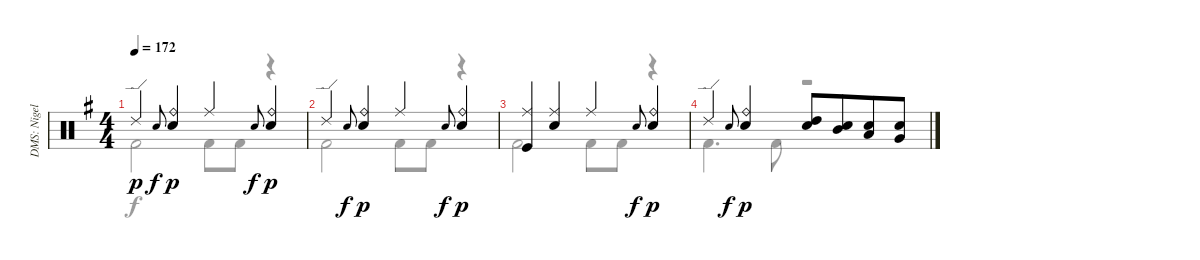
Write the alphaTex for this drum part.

\track ("DMS: Nigel Olsson" "DMS: Nigel") {instrument percussion}
\staff {score}
\articulation defaults
\voice
\ts (4 4)
\tempo 172
\clef neutral
\ks g "Ride (edge) 2".4{dy p volume 0} "Snare (hit) 2".8{gr onbeat dy f}
("Ride (bell)" "Electric Snare (hit)").4{dy p} "Ride (middle)".4 "Snare (hit) 2".8{gr onbeat dy f} ("Ride (bell)" "Electric Snare (hit)").4{dy p} |
"Ride (edge) 2".4 "Snare (hit) 2".8{gr onbeat dy f} ("Ride (bell)" "Electric Snare (hit)").4{dy p} "Ride (middle)".4 "Snare (hit) 2".8{gr onbeat dy f} ("Ride (bell)" "Electric Snare (hit)").4{dy p} |
("Kick (hit)" "Ride (middle)").4 ("Snare (hit) 2" "Ride (middle)").4 "Ride (middle)".4 "Snare (hit) 2".8{gr onbeat dy f} ("Ride (bell)" "Electric Snare (hit)").4{dy p} |
"Ride (edge) 2".4 "Electric Snare (hit)".8{gr onbeat dy f} ("Ride (bell)" "Electric Snare (hit)").4{dy p} ("Electric Snare (hit)" "High Tom (hit)").8 ("Electric Snare (hit)" "Mid Tom (hit)").8{beam merge} ("Electric Snare (hit)" "Low Tom (hit)").8 ("Electric Snare (hit)" "Very Low Tom (hit)").8
\voice
\clef neutral
\ottava regular
\simile none
\ks g "Kick (hit) 2".2{dy f} "Kick (hit) 2".8 "Kick (hit) 2".8
r.4 |
"Kick (hit) 2".2 "Kick (hit) 2".8 "Kick (hit) 2".8 r.4 |
"Kick (hit) 2".2 "Kick (hit) 2".8 "Kick (hit) 2".8 r.4 |
"Kick (hit) 2".4{d} "Kick (hit) 2".8 r.2
